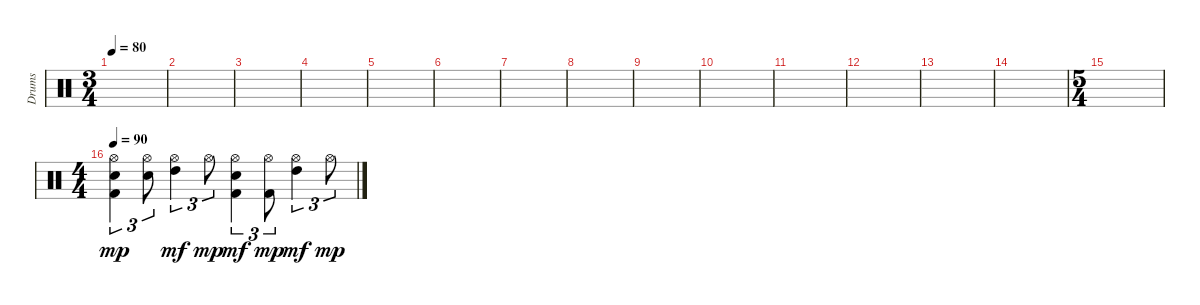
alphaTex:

\track ("Drums" "Drums") {instrument percussion}
\staff {score}
\articulation defaults
\ts (3 4)
\tempo 80
\clef neutral
\ks c
|
|
|
|
|
|
|
|
|
|
|
|
|
|
\ts (5 4)
|
\ts (4 4)
\tempo 90
("Hi-Hat (open)" "Snare (hit) 2" "Kick (hit) 2").4{tu (3 2) dy mp} ("Hi-Hat (open)" "Snare (hit) 2").8{tu (3 2)} ("Hi-Hat (open)" "High Tom (hit)").4{tu (3 2) dy mf} "Hi-Hat (open)".8{tu (3 2) dy mp} ("Hi-Hat (open)" "Snare (hit) 2" "Kick (hit) 2").4{tu (3 2) dy mf} ("Hi-Hat (open)" "Kick (hit) 2").8{tu (3 2) dy mp} ("Hi-Hat (open)" "High Tom (hit)").4{tu (3 2) dy mf} "Hi-Hat (open)".8{tu (3 2) dy mp}
